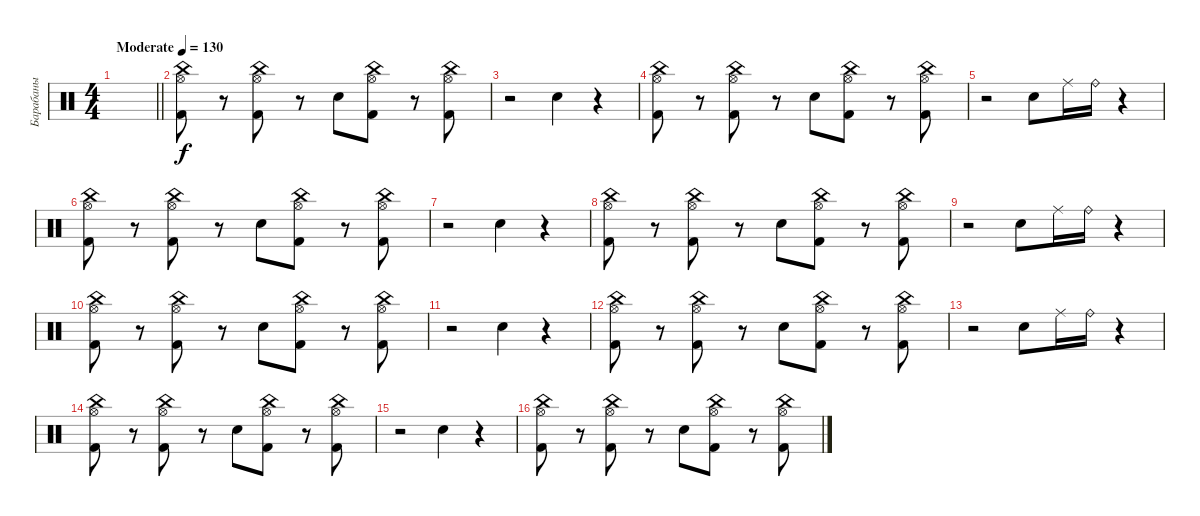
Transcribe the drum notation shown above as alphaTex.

\track ("Барабаны" "Барабаны") {instrument percussion}
\staff {score}
\articulation defaults
\ts (4 4)
\tempo (130 "Moderate")
\clef neutral
\barLineRight lightlight
\ks c
|
\section ("" " ")
("Kick (hit) 2" "Hi-Hat (open)" "China (hit)").8 r.8 ("Kick (hit) 2" "Hi-Hat (open)" "China (hit)").8 r.8 "Snare (hit) 2".8 ("Kick (hit) 2" "Hi-Hat (open)" "China (hit)").8 r.8 ("Kick (hit) 2" "Hi-Hat (open)" "China (hit)").8 |
r.2 "Snare (hit) 2".4 r.4 |
("Kick (hit) 2" "Hi-Hat (open)" "China (hit)").8 r.8 ("Kick (hit) 2" "Hi-Hat (open)" "China (hit)").8 r.8 "Snare (hit) 2".8 ("Kick (hit) 2" "Hi-Hat (open)" "China (hit)").8 r.8 ("Kick (hit) 2" "Hi-Hat (open)" "China (hit)").8 |
r.2 "Snare (hit) 2".8 "Ride (middle)".16 "Ride (bell)".16 r.4 |
("Kick (hit) 2" "Hi-Hat (open)" "China (hit)").8 r.8 ("Kick (hit) 2" "Hi-Hat (open)" "China (hit)").8 r.8 "Snare (hit) 2".8 ("Kick (hit) 2" "Hi-Hat (open)" "China (hit)").8 r.8 ("Kick (hit) 2" "Hi-Hat (open)" "China (hit)").8 |
r.2 "Snare (hit) 2".4 r.4 |
("Kick (hit) 2" "Hi-Hat (open)" "China (hit)").8 r.8 ("Kick (hit) 2" "Hi-Hat (open)" "China (hit)").8 r.8 "Snare (hit) 2".8 ("Kick (hit) 2" "Hi-Hat (open)" "China (hit)").8 r.8 ("Kick (hit) 2" "Hi-Hat (open)" "China (hit)").8 |
r.2 "Snare (hit) 2".8 "Ride (middle)".16 "Ride (bell)".16 r.4 |
("Kick (hit) 2" "Hi-Hat (open)" "China (hit)").8 r.8 ("Kick (hit) 2" "Hi-Hat (open)" "China (hit)").8 r.8 "Snare (hit) 2".8 ("Kick (hit) 2" "Hi-Hat (open)" "China (hit)").8 r.8 ("Kick (hit) 2" "Hi-Hat (open)" "China (hit)").8 |
r.2 "Snare (hit) 2".4 r.4 |
("Kick (hit) 2" "Hi-Hat (open)" "China (hit)").8 r.8 ("Kick (hit) 2" "Hi-Hat (open)" "China (hit)").8 r.8 "Snare (hit) 2".8 ("Kick (hit) 2" "Hi-Hat (open)" "China (hit)").8 r.8 ("Kick (hit) 2" "Hi-Hat (open)" "China (hit)").8 |
r.2 "Snare (hit) 2".8 "Ride (middle)".16 "Ride (bell)".16 r.4 |
("Kick (hit) 2" "Hi-Hat (open)" "China (hit)").8 r.8 ("Kick (hit) 2" "Hi-Hat (open)" "China (hit)").8 r.8 "Snare (hit) 2".8 ("Kick (hit) 2" "Hi-Hat (open)" "China (hit)").8 r.8 ("Kick (hit) 2" "Hi-Hat (open)" "China (hit)").8 |
r.2 "Snare (hit) 2".4 r.4 |
("Kick (hit) 2" "Hi-Hat (open)" "China (hit)").8 r.8 ("Kick (hit) 2" "Hi-Hat (open)" "China (hit)").8 r.8 "Snare (hit) 2".8 ("Kick (hit) 2" "Hi-Hat (open)" "China (hit)").8 r.8 ("Kick (hit) 2" "Hi-Hat (open)" "China (hit)").8
